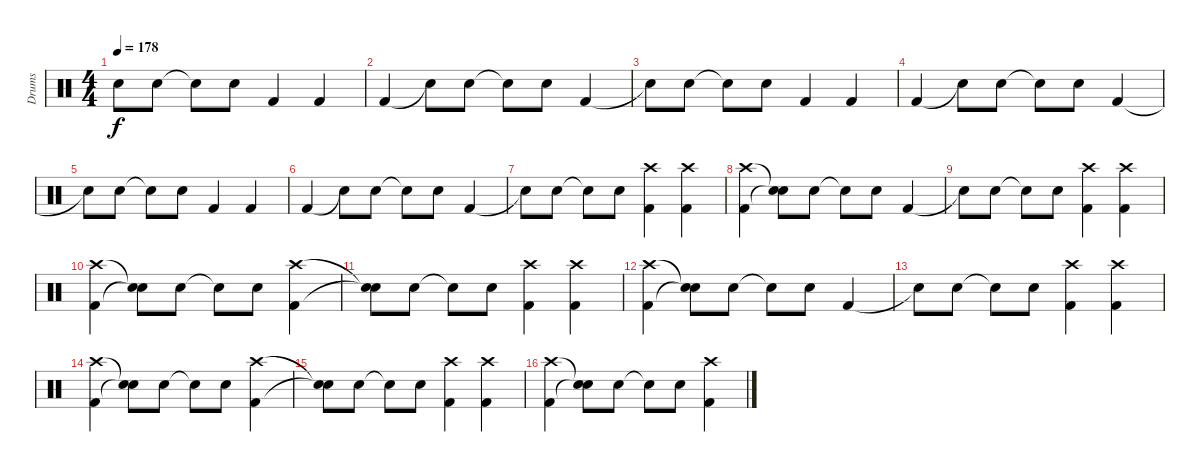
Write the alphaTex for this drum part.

\track ("Drums" "Drums") {instrument percussion}
\staff {score}
\articulation defaults
\ts (4 4)
\tempo 178
\clef neutral
\ks c "Snare (hit)"{t}.8{dy f} "Electric Snare (hit)".8 "Snare (hit)"{t}.8 "Electric Snare (hit)".8 "Kick (hit) 2".4 "Kick (hit) 2".4
|
"Kick (hit) 2".4 "Snare (hit)"{t}.8 "Electric Snare (hit)".8 "Snare (hit)"{t}.8 "Electric Snare (hit)".8 "Kick (hit) 2".4 |
"Snare (hit)"{t}.8 "Electric Snare (hit)".8 "Snare (hit)"{t}.8 "Electric Snare (hit)".8 "Kick (hit) 2".4 "Kick (hit) 2".4 |
"Kick (hit) 2".4 "Snare (hit)"{t}.8 "Electric Snare (hit)".8 "Snare (hit)"{t}.8 "Electric Snare (hit)".8 "Kick (hit) 2".4 |
"Snare (hit)"{t}.8 "Electric Snare (hit)".8 "Snare (hit)"{t}.8 "Electric Snare (hit)".8 "Kick (hit) 2".4 "Kick (hit) 2".4 |
"Kick (hit) 2".4 "Snare (hit)"{t}.8 "Electric Snare (hit)".8 "Snare (hit)"{t}.8 "Electric Snare (hit)".8 "Kick (hit) 2".4 |
"Snare (hit)"{t}.8 "Electric Snare (hit)".8 "Snare (hit)"{t}.8 "Electric Snare (hit)".8 ("Crash high (hit)" "Kick (hit) 2").4 ("Crash high (hit)" "Kick (hit) 2").4 |
("Crash high (hit)" "Kick (hit) 2").4 ("Snare (hit)"{t} "Snare (hit)"{t}).8 "Electric Snare (hit)".8 "Snare (hit)"{t}.8 "Electric Snare (hit)".8 "Kick (hit) 2".4 |
"Snare (hit)"{t}.8 "Electric Snare (hit)".8 "Snare (hit)"{t}.8 "Electric Snare (hit)".8 ("Crash high (hit)" "Kick (hit) 2").4 ("Crash high (hit)" "Kick (hit) 2").4 |
("Crash high (hit)" "Kick (hit) 2").4 ("Snare (hit)"{t} "Snare (hit)"{t}).8 "Electric Snare (hit)".8 "Snare (hit)"{t}.8 "Electric Snare (hit)".8 ("Crash high (hit)" "Kick (hit) 2").4 |
("Snare (hit)"{t} "Snare (hit)"{t}).8 "Electric Snare (hit)".8 "Snare (hit)"{t}.8 "Electric Snare (hit)".8 ("Crash high (hit)" "Kick (hit) 2").4 ("Crash high (hit)" "Kick (hit) 2").4 |
("Crash high (hit)" "Kick (hit) 2").4 ("Snare (hit)"{t} "Snare (hit)"{t}).8 "Electric Snare (hit)".8 "Snare (hit)"{t}.8 "Electric Snare (hit)".8 "Kick (hit) 2".4 |
"Snare (hit)"{t}.8 "Electric Snare (hit)".8 "Snare (hit)"{t}.8 "Electric Snare (hit)".8 ("Crash high (hit)" "Kick (hit) 2").4 ("Crash high (hit)" "Kick (hit) 2").4 |
("Crash high (hit)" "Kick (hit) 2").4 ("Snare (hit)"{t} "Snare (hit)"{t}).8 "Electric Snare (hit)".8 "Snare (hit)"{t}.8 "Electric Snare (hit)".8 ("Crash high (hit)" "Kick (hit) 2").4 |
("Snare (hit)"{t} "Snare (hit)"{t}).8 "Electric Snare (hit)".8 "Snare (hit)"{t}.8 "Electric Snare (hit)".8 ("Crash high (hit)" "Kick (hit) 2").4 ("Crash high (hit)" "Kick (hit) 2").4 |
("Crash high (hit)" "Kick (hit) 2").4 ("Snare (hit)"{t} "Snare (hit)"{t}).8 "Electric Snare (hit)".8 "Snare (hit)"{t}.8 "Electric Snare (hit)".8 ("Crash high (hit)" "Kick (hit) 2").4
